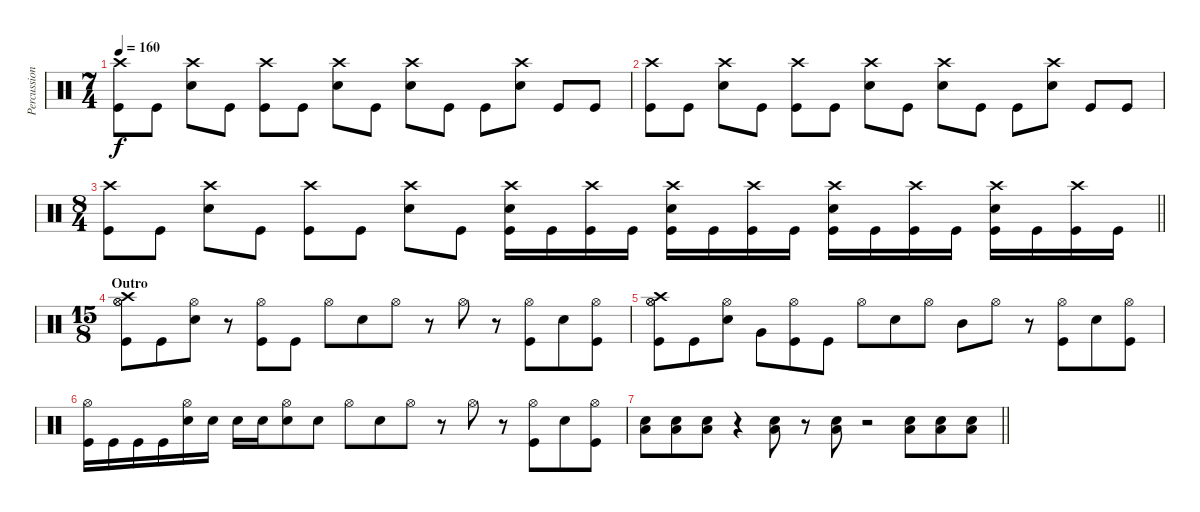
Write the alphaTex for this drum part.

\track ("Percussion" "Percussion") {instrument percussion}
\staff {score}
\articulation defaults
\ts (7 4)
\tempo 160
\clef neutral
\ks c
("Kick (hit)" "Crash high (hit)").8{dy f} "Kick (hit)".8 ("Snare (hit) 2" "Crash high (hit)").8 "Kick (hit)".8 ("Kick (hit)" "Crash high (hit)").8 "Kick (hit)".8 ("Snare (hit) 2" "Crash high (hit)").8 "Kick (hit)".8 ("Snare (hit) 2" "Crash high (hit)").8 "Kick (hit)".8 "Kick (hit)".8 ("Snare (hit) 2" "Crash high (hit)").8 "Kick (hit)".8 "Kick (hit)".8 |
("Kick (hit)" "Crash high (hit)").8 "Kick (hit)".8 ("Snare (hit) 2" "Crash high (hit)").8 "Kick (hit)".8 ("Kick (hit)" "Crash high (hit)").8 "Kick (hit)".8 ("Snare (hit) 2" "Crash high (hit)").8 "Kick (hit)".8 ("Snare (hit) 2" "Crash high (hit)").8 "Kick (hit)".8 "Kick (hit)".8 ("Snare (hit) 2" "Crash high (hit)").8 "Kick (hit)".8 "Kick (hit)".8 |
\ts (8 4)
\barLineRight lightlight
("Kick (hit)" "Crash high (hit)").8 "Kick (hit)".8 ("Snare (hit) 2" "Crash high (hit)").8 "Kick (hit)".8 ("Kick (hit)" "Crash high (hit)").8 "Kick (hit)".8 ("Snare (hit) 2" "Crash high (hit)").8 "Kick (hit)".8 ("Kick (hit)" "Snare (hit) 2" "Crash high (hit)").16 "Kick (hit)".16 ("Kick (hit)" "Crash high (hit)").16 "Kick (hit)".16 ("Kick (hit)" "Snare (hit) 2" "Crash high (hit)").16 "Kick (hit)".16 ("Kick (hit)" "Crash high (hit)").16 "Kick (hit)".16 ("Kick (hit)" "Snare (hit) 2" "Crash high (hit)").16 "Kick (hit)".16 ("Kick (hit)" "Crash high (hit)").16 "Kick (hit)".16 ("Kick (hit)" "Snare (hit) 2" "Crash high (hit)").16 "Kick (hit)".16 ("Kick (hit)" "Crash high (hit)").16 "Kick (hit)".16 |
\ts (15 8)
\section ("" "Outro")
("Kick (hit)" "Hi-Hat (open)" "Crash high (hit)" "Hi-Hat (open)").8 "Kick (hit)".8 ("Snare (hit) 2" "Hi-Hat (open)").8 r.8 ("Hi-Hat (open)" "Kick (hit)").8 "Kick (hit)".8 "Hi-Hat (open)".8 "Snare (hit) 2".8 "Hi-Hat (open)".8 r.8 "Hi-Hat (open)".8 r.8 ("Kick (hit)" "Hi-Hat (open)").8 "Snare (hit) 2".8 ("Kick (hit)" "Hi-Hat (open)").8 |
("Kick (hit)" "Hi-Hat (open)" "Crash high (hit)" "Hi-Hat (open)").8 "Kick (hit)".8 ("Snare (hit) 2" "Hi-Hat (open)").8 "Very Low Tom (hit)".8 ("Hi-Hat (open)" "Kick (hit)").8 "Kick (hit)".8 "Hi-Hat (open)".8 "Snare (hit) 2".8 "Hi-Hat (open)".8 "Mid Tom (hit)".8 "Hi-Hat (open)".8 r.8 ("Kick (hit)" "Hi-Hat (open)").8 "Snare (hit) 2".8 ("Kick (hit)" "Hi-Hat (open)").8 |
("Hi-Hat (open)" "Kick (hit)").16 "Kick (hit)".16 "Kick (hit)".16 "Kick (hit)".16 ("Snare (hit) 2" "Hi-Hat (open)").16 "Snare (hit) 2".16 "Snare (hit) 2".16 "Snare (hit) 2".16 ("Snare (hit) 2" "Hi-Hat (open)").8 "Snare (hit) 2".8 "Hi-Hat (open)".8 "Snare (hit) 2".8 "Hi-Hat (open)".8 r.8 "Hi-Hat (open)".8 r.8 ("Kick (hit)" "Hi-Hat (open)").8 "Snare (hit) 2".8 ("Kick (hit)" "Hi-Hat (open)").8 |
\barLineRight lightlight
("Low Tom (hit)" "Snare (hit) 2").8 ("Low Tom (hit)" "Snare (hit) 2").8 ("Low Tom (hit)" "Snare (hit) 2").8 r.4 ("Low Tom (hit)" "Snare (hit) 2").8 r.8 ("Low Tom (hit)" "Snare (hit) 2").8 r.2 ("Low Tom (hit)" "Snare (hit) 2").8 ("Low Tom (hit)" "Snare (hit) 2").8 ("Low Tom (hit)" "Snare (hit) 2").8
